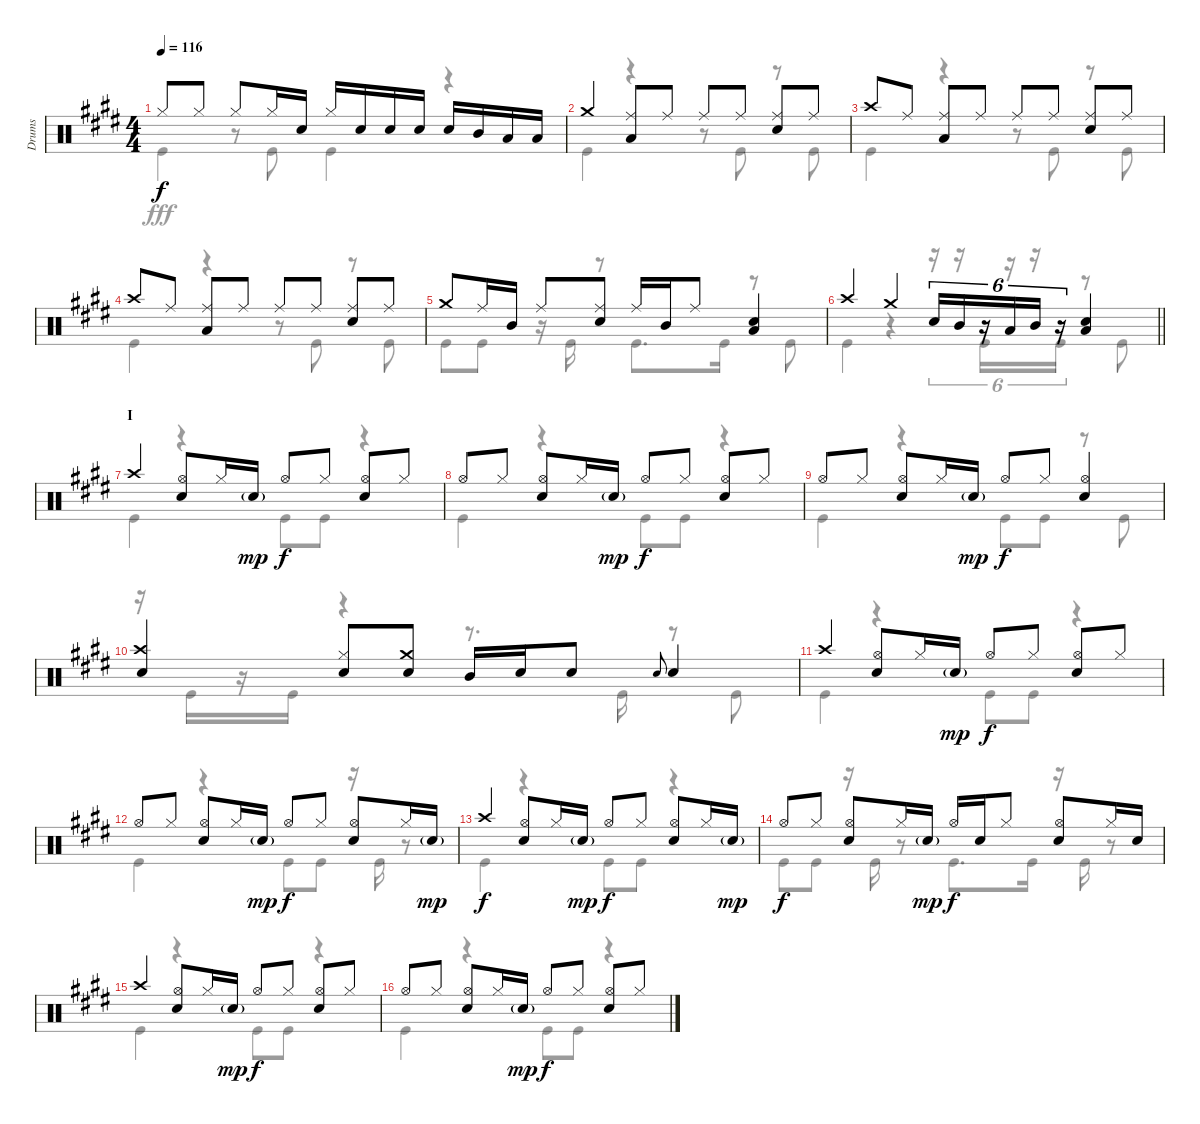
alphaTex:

\track ("Drums" "Drums") {instrument percussion}
\staff {score}
\articulation defaults
\voice
\ts (4 4)
\tempo 116
\clef neutral
\ks e "Hi-Hat (closed)".8{dy f} "Hi-Hat (closed)".8 "Hi-Hat (closed)".8 "Hi-Hat (closed)".16 "Snare (hit) 2".16 "Hi-Hat (closed)".16 "Snare (hit) 2".16 "Snare (hit) 2".16 "Snare (hit) 2".16 "Snare (hit) 2".16 "Mid Tom (hit)".16 "Low Tom (hit)".16 "Low Tom (hit)".16
|
"Crash medium (hit)".4 ("Ride (middle)" "Low Tom (hit)").8 "Ride (middle)".8 "Ride (middle)".8 "Ride (middle)".8 ("Ride (middle)" "Snare (hit) 2").8 "Ride (middle)".8 |
"Crash high (hit)".8 "Ride (middle)".8 ("Ride (middle)" "Low Tom (hit)").8 "Ride (middle)".8 "Ride (middle)".8 "Ride (middle)".8 ("Ride (middle)" "Snare (hit) 2").8 "Ride (middle)".8 |
"Crash high (hit)".8 "Ride (middle)".8 ("Ride (middle)" "Low Tom (hit)").8 "Ride (middle)".8 "Ride (middle)".8 "Ride (middle)".8 ("Ride (middle)" "Snare (hit) 2").8 "Ride (middle)".8 |
"Crash medium (hit)".8 "Ride (middle)".16 "Mid Tom (hit)".16 "Ride (middle)".8 ("Ride (middle)" "Snare (hit) 2").8 "Ride (middle)".16 "Mid Tom (hit)".16 "Ride (middle)".8 ("Snare (hit) 2" "Low Tom (hit)").4 |
\barLineRight lightlight "Crash high (hit)".4 "Crash medium (hit)".4 "Snare (hit) 2".16{tu (6 4)} "Mid Tom (hit)".16{tu (6 4)}
r.16{tu (6 4)} "Low Tom (hit)".16{tu (6 4)} "Mid Tom (hit)".16{tu (6 4)} r.16{tu (6 4)} ("Snare (hit) 2" "Low Tom (hit)").4 |
\section ("" "I")
"Crash high (hit)".4 ("Hi-Hat (open)" "Snare (hit) 2").8 "Hi-Hat (closed)".16 "Snare (hit) 2"{g}.16{dy mp} "Hi-Hat (open)".8{dy f} "Hi-Hat (closed)".8 ("Snare (hit) 2" "Hi-Hat (open)").8 "Hi-Hat (closed)".8 |
"Hi-Hat (open)".8 "Hi-Hat (closed)".8 ("Hi-Hat (open)" "Snare (hit) 2").8 "Hi-Hat (closed)".16 "Snare (hit) 2"{g}.16{dy mp} "Hi-Hat (open)".8{dy f} "Hi-Hat (closed)".8 ("Hi-Hat (open)" "Snare (hit) 2").8 "Hi-Hat (closed)".8 |
"Hi-Hat (open)".8 "Hi-Hat (closed)".8 ("Hi-Hat (open)" "Snare (hit) 2").8 "Hi-Hat (closed)".16 "Snare (hit) 2"{g}.16{dy mp} "Hi-Hat (open)".8{dy f} "Hi-Hat (closed)".8 ("Hi-Hat (open)" "Snare (hit) 2").4 |
("Crash high (hit)" "Snare (hit) 2").4 ("Hi-Hat (closed)" "Snare (hit) 2").8 ("Crash medium (hit)" "Snare (hit) 2").8 "Mid Tom (hit)".16 "Snare (hit) 2".16 "Snare (hit) 2".8 "Snare (hit) 2".8{gr onbeat} "Snare (hit) 2".4 |
"Crash high (hit)".4 ("Hi-Hat (open)" "Snare (hit) 2").8 "Hi-Hat (closed)".16 "Snare (hit) 2"{g}.16{dy mp} "Hi-Hat (open)".8{dy f} "Hi-Hat (closed)".8 ("Snare (hit) 2" "Hi-Hat (open)").8 "Hi-Hat (closed)".8 |
"Hi-Hat (open)".8 "Hi-Hat (closed)".8 ("Hi-Hat (open)" "Snare (hit) 2").8 "Hi-Hat (closed)".16 "Snare (hit) 2"{g}.16{dy mp} "Hi-Hat (open)".8{dy f} "Hi-Hat (closed)".8 ("Hi-Hat (open)" "Snare (hit) 2").8 "Hi-Hat (closed)".16 "Snare (hit) 2"{g}.16{dy mp} |
"Crash high (hit)".4{dy f} ("Hi-Hat (open)" "Snare (hit) 2").8 "Hi-Hat (closed)".16 "Snare (hit) 2"{g}.16{dy mp} "Hi-Hat (open)".8{dy f} "Hi-Hat (closed)".8 ("Hi-Hat (open)" "Snare (hit) 2").8 "Hi-Hat (closed)".16 "Snare (hit) 2"{g}.16{dy mp} |
"Hi-Hat (open)".8{dy f} "Hi-Hat (closed)".8 ("Hi-Hat (open)" "Snare (hit) 2").8 "Hi-Hat (closed)".16 "Snare (hit) 2"{g}.16{dy mp} "Hi-Hat (open)".16{dy f} "Snare (hit) 2".16 "Hi-Hat (closed)".8 ("Hi-Hat (open)" "Snare (hit) 2").8 "Hi-Hat (closed)".16 "Snare (hit) 2".16 |
"Crash high (hit)".4 ("Hi-Hat (open)" "Snare (hit) 2").8 "Hi-Hat (closed)".16 "Snare (hit) 2"{g}.16{dy mp} "Hi-Hat (open)".8{dy f} "Hi-Hat (closed)".8 ("Snare (hit) 2" "Hi-Hat (open)").8 "Hi-Hat (closed)".8 |
"Hi-Hat (open)".8 "Hi-Hat (closed)".8 ("Hi-Hat (open)" "Snare (hit) 2").8 "Hi-Hat (closed)".16 "Snare (hit) 2"{g}.16{dy mp} "Hi-Hat (open)".8{dy f} "Hi-Hat (closed)".8 ("Hi-Hat (open)" "Snare (hit) 2").8 "Hi-Hat (closed)".8
\voice
\clef neutral
\ottava regular
\simile none
\ks e "Kick (hit)".4{dy fff}
r.8 "Kick (hit)".8 "Kick (hit)".4 r.4 |
"Kick (hit)".4 r.4 r.8 "Kick (hit)".8 r.8 "Kick (hit)".8 |
"Kick (hit)".4 r.4 r.8 "Kick (hit)".8 r.8 "Kick (hit)".8 |
"Kick (hit)".4 r.4 r.8 "Kick (hit)".8 r.8 "Kick (hit)".8 |
"Kick (hit)".8 "Kick (hit)".8 r.16 "Kick (hit)".16 r.8 "Kick (hit)".8{d} "Kick (hit)".16 r.8 "Kick (hit)".8 |
\barLineRight lightlight "Kick (hit)".4
r.4 r.16{tu (6 4)} r.16{tu (6 4)} "Kick (hit)".16{tu (6 4)} r.16{tu (6 4)} r.16{tu (6 4)} "Kick (hit)".16{tu (6 4)} r.8 "Kick (hit)".8 |
"Kick (hit)".4 r.4 "Kick (hit)".8 "Kick (hit)".8 r.4 |
"Kick (hit)".4 r.4 "Kick (hit)".8 "Kick (hit)".8 r.4 |
"Kick (hit)".4 r.4 "Kick (hit)".8 "Kick (hit)".8 r.8 "Kick (hit)".8 |
r.16 "Kick (hit)".16 r.16 "Kick (hit)".16 r.4 r.8{d} "Kick (hit)".16 r.8 "Kick (hit)".8 |
"Kick (hit)".4 r.4 "Kick (hit)".8 "Kick (hit)".8 r.4 |
"Kick (hit)".4 r.4 "Kick (hit)".8 "Kick (hit)".8 r.16 "Kick (hit)".16 r.8 |
"Kick (hit)".4 r.4 "Kick (hit)".8 "Kick (hit)".8 r.4 |
"Kick (hit)".8 "Kick (hit)".8 r.16 "Kick (hit)".16 r.8 "Kick (hit)".8{d} "Kick (hit)".16 r.16 "Kick (hit)".16 r.8 |
"Kick (hit)".4 r.4 "Kick (hit)".8 "Kick (hit)".8 r.4 |
"Kick (hit)".4 r.4 "Kick (hit)".8 "Kick (hit)".8 r.4
